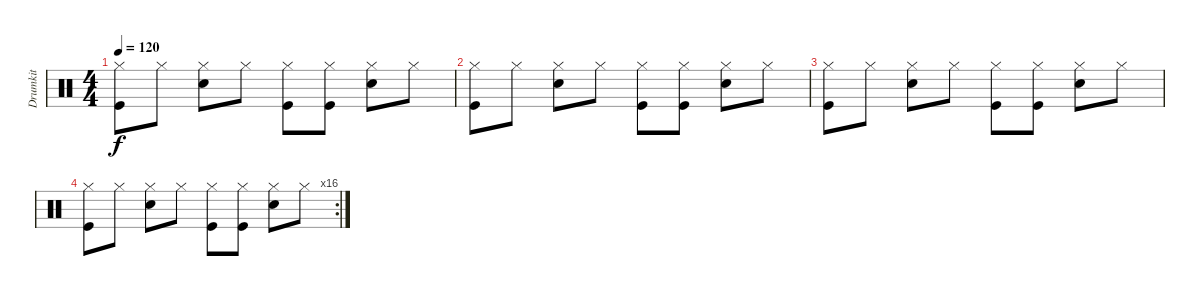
\track ("Drumkit" "Drumkit") {instrument percussion}
\staff {score}
\articulation defaults
\ts (4 4)
\tempo 120
\clef neutral
\ks c
("Kick (hit)" "Hi-Hat (closed)").8{dy f} "Hi-Hat (closed)".8 ("Snare (hit) 2" "Hi-Hat (closed)").8 "Hi-Hat (closed)".8 ("Kick (hit)" "Hi-Hat (closed)").8 ("Kick (hit)" "Hi-Hat (closed)").8 ("Snare (hit) 2" "Hi-Hat (closed)").8 "Hi-Hat (closed)".8 |
("Kick (hit)" "Hi-Hat (closed)").8 "Hi-Hat (closed)".8 ("Snare (hit) 2" "Hi-Hat (closed)").8 "Hi-Hat (closed)".8 ("Kick (hit)" "Hi-Hat (closed)").8 ("Kick (hit)" "Hi-Hat (closed)").8 ("Snare (hit) 2" "Hi-Hat (closed)").8 "Hi-Hat (closed)".8 |
("Kick (hit)" "Hi-Hat (closed)").8 "Hi-Hat (closed)".8 ("Snare (hit) 2" "Hi-Hat (closed)").8 "Hi-Hat (closed)".8 ("Kick (hit)" "Hi-Hat (closed)").8 ("Kick (hit)" "Hi-Hat (closed)").8 ("Snare (hit) 2" "Hi-Hat (closed)").8 "Hi-Hat (closed)".8 |
\rc 16
("Kick (hit)" "Hi-Hat (closed)").8 "Hi-Hat (closed)".8 ("Snare (hit) 2" "Hi-Hat (closed)").8 "Hi-Hat (closed)".8 ("Kick (hit)" "Hi-Hat (closed)").8 ("Kick (hit)" "Hi-Hat (closed)").8 ("Snare (hit) 2" "Hi-Hat (closed)").8 "Hi-Hat (closed)".8
